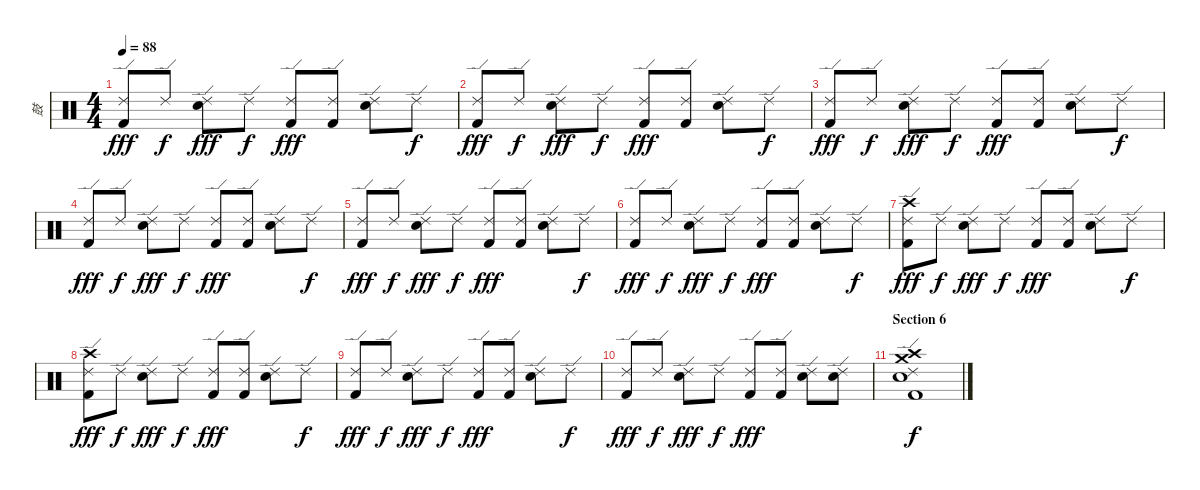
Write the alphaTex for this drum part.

\track ("鼓" "鼓") {instrument percussion}
\staff {score}
\articulation defaults
\ts (4 4)
\tempo 88
\clef neutral
\ks c
("Ride (edge) 2" "Kick (hit) 2").8{dy fff} "Ride (edge) 2".8{dy f} ("Ride (edge) 2" "Snare (hit) 2").8{dy fff} "Ride (edge) 2".8{dy f} ("Ride (edge) 2" "Kick (hit) 2").8{dy fff} ("Ride (edge) 2" "Kick (hit) 2").8 ("Ride (edge) 2" "Snare (hit) 2").8 "Ride (edge) 2".8{dy f} |
("Ride (edge) 2" "Kick (hit) 2").8{dy fff} "Ride (edge) 2".8{dy f} ("Ride (edge) 2" "Snare (hit) 2").8{dy fff} "Ride (edge) 2".8{dy f} ("Ride (edge) 2" "Kick (hit) 2").8{dy fff} ("Ride (edge) 2" "Kick (hit) 2").8 ("Ride (edge) 2" "Snare (hit) 2").8 "Ride (edge) 2".8{dy f} |
("Ride (edge) 2" "Kick (hit) 2").8{dy fff} "Ride (edge) 2".8{dy f} ("Ride (edge) 2" "Snare (hit) 2").8{dy fff} "Ride (edge) 2".8{dy f} ("Ride (edge) 2" "Kick (hit) 2").8{dy fff} ("Ride (edge) 2" "Kick (hit) 2").8 ("Ride (edge) 2" "Snare (hit) 2").8 "Ride (edge) 2".8{dy f} |
("Ride (edge) 2" "Kick (hit) 2").8{dy fff} "Ride (edge) 2".8{dy f} ("Ride (edge) 2" "Snare (hit) 2").8{dy fff} "Ride (edge) 2".8{dy f} ("Ride (edge) 2" "Kick (hit) 2").8{dy fff} ("Ride (edge) 2" "Kick (hit) 2").8 ("Ride (edge) 2" "Snare (hit) 2").8 "Ride (edge) 2".8{dy f} |
("Ride (edge) 2" "Kick (hit) 2").8{dy fff} "Ride (edge) 2".8{dy f} ("Ride (edge) 2" "Snare (hit) 2").8{dy fff} "Ride (edge) 2".8{dy f} ("Ride (edge) 2" "Kick (hit) 2").8{dy fff} ("Ride (edge) 2" "Kick (hit) 2").8 ("Ride (edge) 2" "Snare (hit) 2").8 "Ride (edge) 2".8{dy f} |
("Ride (edge) 2" "Kick (hit) 2").8{dy fff} "Ride (edge) 2".8{dy f} ("Ride (edge) 2" "Snare (hit) 2").8{dy fff} "Ride (edge) 2".8{dy f} ("Ride (edge) 2" "Kick (hit) 2").8{dy fff} ("Ride (edge) 2" "Kick (hit) 2").8 ("Ride (edge) 2" "Snare (hit) 2").8 "Ride (edge) 2".8{dy f} |
("Ride (edge) 2" "Crash high (hit)" "Kick (hit) 2").8{dy fff} "Ride (edge) 2".8{dy f} ("Ride (edge) 2" "Snare (hit) 2").8{dy fff} "Ride (edge) 2".8{dy f} ("Ride (edge) 2" "Kick (hit) 2").8{dy fff} ("Ride (edge) 2" "Kick (hit) 2").8 ("Ride (edge) 2" "Snare (hit) 2").8 "Ride (edge) 2".8{dy f} |
("Ride (edge) 2" "Crash high (hit)" "Kick (hit) 2").8{dy fff} "Ride (edge) 2".8{dy f} ("Ride (edge) 2" "Snare (hit) 2").8{dy fff} "Ride (edge) 2".8{dy f} ("Ride (edge) 2" "Kick (hit) 2").8{dy fff} ("Ride (edge) 2" "Kick (hit) 2").8 ("Ride (edge) 2" "Snare (hit) 2").8 "Ride (edge) 2".8{dy f} |
("Ride (edge) 2" "Kick (hit) 2").8{dy fff} "Ride (edge) 2".8{dy f} ("Ride (edge) 2" "Snare (hit) 2").8{dy fff} "Ride (edge) 2".8{dy f} ("Ride (edge) 2" "Kick (hit) 2").8{dy fff} ("Ride (edge) 2" "Kick (hit) 2").8 ("Ride (edge) 2" "Snare (hit) 2").8 "Ride (edge) 2".8{dy f} |
("Ride (edge) 2" "Kick (hit) 2").8{dy fff} "Ride (edge) 2".8{dy f} ("Ride (edge) 2" "Snare (hit) 2").8{dy fff} "Ride (edge) 2".8{dy f} ("Ride (edge) 2" "Kick (hit) 2").8{dy fff} ("Ride (edge) 2" "Kick (hit) 2").8 ("Ride (edge) 2" "Snare (hit) 2").8 ("Ride (edge) 2" "Snare (hit) 2").8 |
\section ("" "Section 6")
("Crash high (hit)" "Crash medium (hit)" "Ride (edge) 2" "Snare (hit) 2" "Kick (hit) 2").1{dy f}
